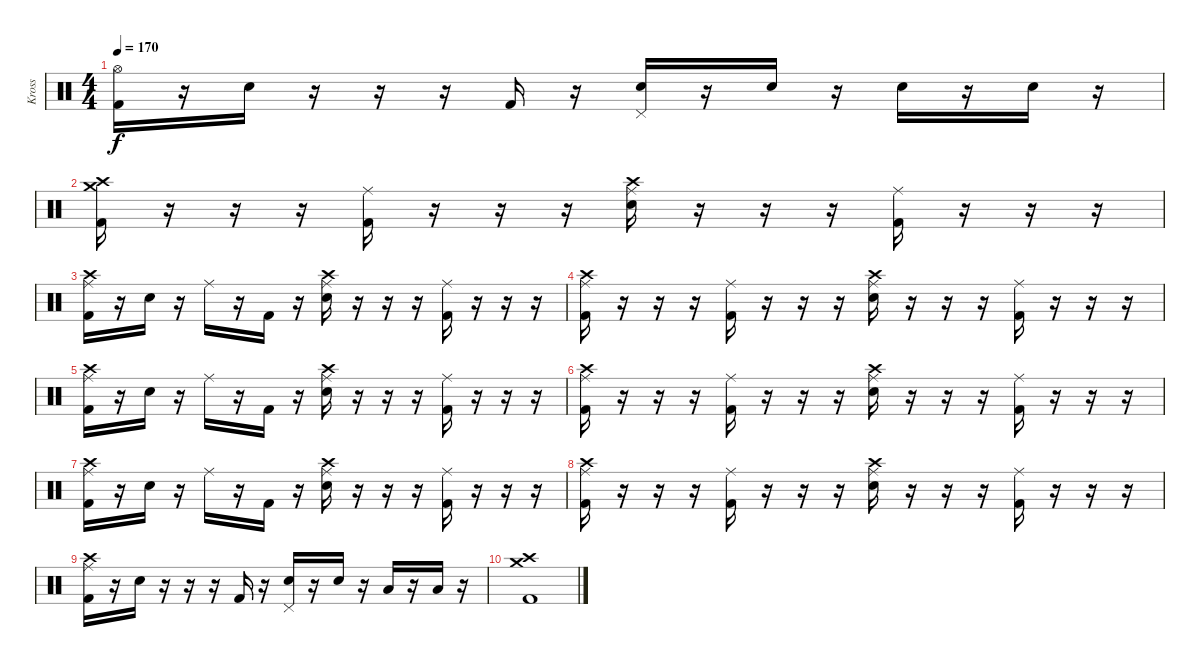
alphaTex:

\track ("Kross" "Kross") {instrument percussion}
\staff {score}
\articulation defaults
\ts (4 4)
\tempo 170
\clef neutral
\ks c
("Hi-Hat (open)" "Kick (hit) 2").16{dy f} r.16 "Electric Snare (hit)".16 r.16 r.16 r.16 "Kick (hit) 2".16 r.16 ("Pedal Hi-Hat (hit)" "Electric Snare (hit)").16 r.16 "Electric Snare (hit)".16 r.16 "Electric Snare (hit)".16 r.16 "Electric Snare (hit)".16 r.16 |
("Crash medium (hit)" "Crash high (hit)" "Kick (hit) 2").16 r.16 r.16 r.16 ("Ride (middle)" "Kick (hit) 2").16 r.16 r.16 r.16 ("Crash high (hit)" "Ride (middle)" "Electric Snare (hit)").16 r.16 r.16 r.16 ("Ride (middle)" "Kick (hit) 2").16 r.16 r.16 r.16 |
("Ride (middle)" "Crash high (hit)" "Kick (hit) 2").16 r.16 "Electric Snare (hit)".16 r.16 "Ride (middle)".16 r.16 "Kick (hit) 2".16 r.16 ("Ride (middle)" "Crash high (hit)" "Electric Snare (hit)").16 r.16 r.16 r.16 ("Ride (middle)" "Kick (hit) 2").16 r.16 r.16 r.16 |
("Ride (middle)" "Crash high (hit)" "Kick (hit) 2").16 r.16 r.16 r.16 ("Ride (middle)" "Kick (hit) 2").16 r.16 r.16 r.16 ("Ride (middle)" "Crash high (hit)" "Electric Snare (hit)").16 r.16 r.16 r.16 ("Ride (middle)" "Kick (hit) 2").16 r.16 r.16 r.16 |
("Ride (middle)" "Crash high (hit)" "Kick (hit) 2").16 r.16 "Electric Snare (hit)".16 r.16 "Ride (middle)".16 r.16 "Kick (hit) 2".16 r.16 ("Ride (middle)" "Crash high (hit)" "Electric Snare (hit)").16 r.16 r.16 r.16 ("Ride (middle)" "Kick (hit) 2").16 r.16 r.16 r.16 |
("Ride (middle)" "Crash high (hit)" "Kick (hit) 2").16 r.16 r.16 r.16 ("Ride (middle)" "Kick (hit) 2").16 r.16 r.16 r.16 ("Ride (middle)" "Crash high (hit)" "Electric Snare (hit)").16 r.16 r.16 r.16 ("Ride (middle)" "Kick (hit) 2").16 r.16 r.16 r.16 |
("Ride (middle)" "Crash high (hit)" "Kick (hit) 2").16 r.16 "Electric Snare (hit)".16 r.16 "Ride (middle)".16 r.16 "Kick (hit) 2".16 r.16 ("Ride (middle)" "Crash high (hit)" "Electric Snare (hit)").16 r.16 r.16 r.16 ("Ride (middle)" "Kick (hit) 2").16 r.16 r.16 r.16 |
("Ride (middle)" "Crash high (hit)" "Kick (hit) 2").16 r.16 r.16 r.16 ("Ride (middle)" "Kick (hit) 2").16 r.16 r.16 r.16 ("Ride (middle)" "Crash high (hit)" "Electric Snare (hit)").16 r.16 r.16 r.16 ("Ride (middle)" "Kick (hit) 2").16 r.16 r.16 r.16 |
("Ride (middle)" "Crash high (hit)" "Kick (hit) 2").16 r.16 "Electric Snare (hit)".16 r.16 r.16 r.16 "Kick (hit) 2".16 r.16 ("Pedal Hi-Hat (hit)" "Electric Snare (hit)").16 r.16 "Electric Snare (hit)".16 r.16 "Low Floor Tom (hit)".16 r.16 "Low Floor Tom (hit)".16 r.16 |
("Crash medium (hit)" "Crash high (hit)" "Kick (hit) 2").1
